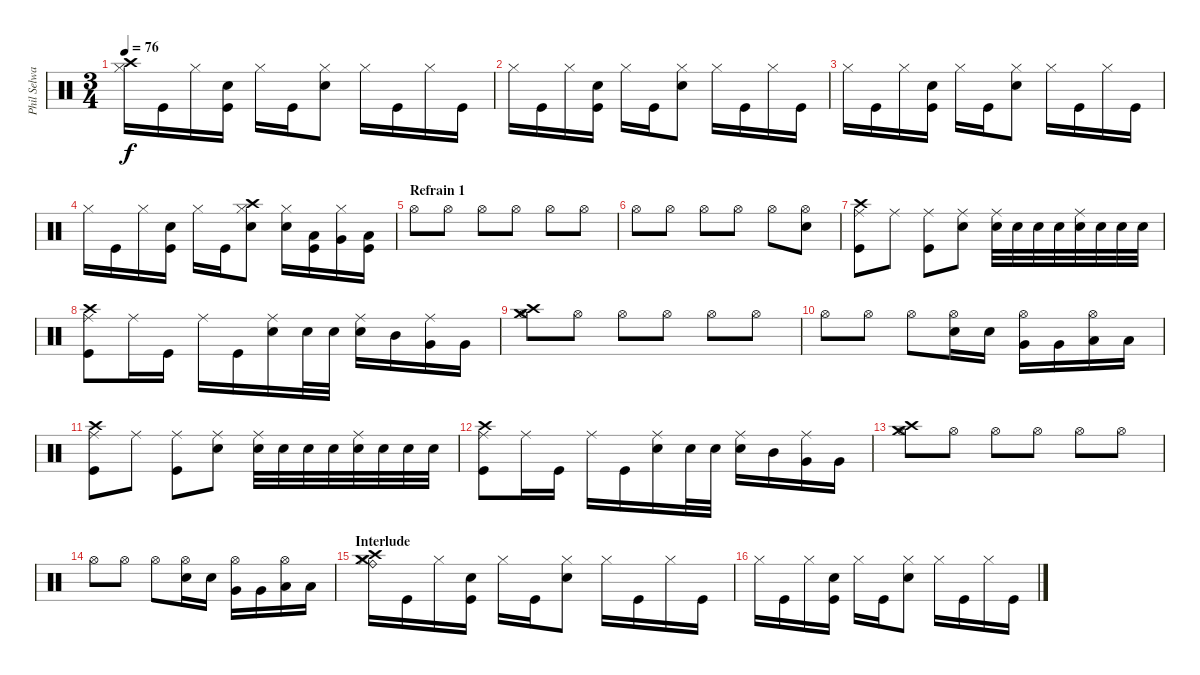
\track ("Phil Selway" "Phil Selwa") {instrument percussion}
\staff {score}
\articulation defaults
\ts (3 4)
\tempo 76
\clef neutral
\ks c
("Hi-Hat (closed)" "Crash high (hit)").16{dy f} "Kick (hit)".16 "Hi-Hat (closed)".16 ("Kick (hit)" "Snare (hit) 2").16 "Hi-Hat (closed)".16 "Kick (hit)".16 ("Snare (hit) 2" "Hi-Hat (closed)").8 "Hi-Hat (closed)".16 "Kick (hit)".16 "Hi-Hat (closed)".16 "Kick (hit)".16 |
"Hi-Hat (closed)".16 "Kick (hit)".16 "Hi-Hat (closed)".16 ("Kick (hit)" "Snare (hit) 2").16 "Hi-Hat (closed)".16 "Kick (hit)".16 ("Snare (hit) 2" "Hi-Hat (closed)").8 "Hi-Hat (closed)".16 "Kick (hit)".16 "Hi-Hat (closed)".16 "Kick (hit)".16 |
"Hi-Hat (closed)".16 "Kick (hit)".16 "Hi-Hat (closed)".16 ("Kick (hit)" "Snare (hit) 2").16 "Hi-Hat (closed)".16 "Kick (hit)".16 ("Snare (hit) 2" "Hi-Hat (closed)").8 "Hi-Hat (closed)".16 "Kick (hit)".16 "Hi-Hat (closed)".16 "Kick (hit)".16 |
"Hi-Hat (closed)".16 "Kick (hit)".16 "Hi-Hat (closed)".16 ("Kick (hit)" "Snare (hit) 2").16 "Hi-Hat (closed)".16 "Kick (hit)".16 ("Snare (hit) 2" "Hi-Hat (closed)" "Crash high (hit)").8 ("Snare (hit) 2" "Hi-Hat (closed)").16 ("Kick (hit)" "Low Tom (hit)").16 ("Hi-Hat (closed)" "Very Low Tom (hit)").16 ("Kick (hit)" "Low Floor Tom (hit)").16 |
\section ("" "Refrain 1")
"Hi-Hat (open)".8 "Hi-Hat (open)".8 "Hi-Hat (open)".8 "Hi-Hat (open)".8 "Hi-Hat (open)".8 "Hi-Hat (open)".8 |
"Hi-Hat (open)".8 "Hi-Hat (open)".8 "Hi-Hat (open)".8 "Hi-Hat (open)".8 "Hi-Hat (open)".8 ("Snare (hit) 2" "Hi-Hat (open)").8 |
("Kick (hit)" "Crash high (hit)" "Ride (middle)").8 "Ride (middle)".8 ("Kick (hit)" "Ride (middle)").8 ("Snare (hit) 2" "Ride (middle)").8 ("Snare (hit) 2" "Ride (middle)").32 "Snare (hit) 2".32 "Snare (hit) 2".32 "Snare (hit) 2".32 ("Snare (hit) 2" "Ride (middle)").32 "Snare (hit) 2".32 "Snare (hit) 2".32 "Snare (hit) 2".32 |
("Kick (hit)" "Crash high (hit)" "Ride (middle)").8 "Ride (middle)".16 "Kick (hit)".16 "Ride (middle)".16 "Kick (hit)".16 ("Snare (hit) 2" "Ride (middle)").16 "Snare (hit) 2".32 "Snare (hit) 2".32 ("Snare (hit) 2" "Ride (middle)").16 "Mid Tom (hit)".16 ("Very Low Tom (hit)" "Ride (middle)").16 "Very Low Tom (hit)".16 |
("Hi-Hat (open)" "Crash high (hit)" "Crash medium (hit)").8 "Hi-Hat (open)".8 "Hi-Hat (open)".8 "Hi-Hat (open)".8 "Hi-Hat (open)".8 "Hi-Hat (open)".8 |
"Hi-Hat (open)".8 "Hi-Hat (open)".8 "Hi-Hat (open)".8 ("Snare (hit) 2" "Hi-Hat (open)").16 "Snare (hit) 2".16 ("Very Low Tom (hit)" "Hi-Hat (open)").16 "Very Low Tom (hit)".16 ("Low Floor Tom (hit)" "Hi-Hat (open)").16 "Low Floor Tom (hit)".16 |
("Kick (hit)" "Crash high (hit)" "Ride (middle)").8 "Ride (middle)".8 ("Kick (hit)" "Ride (middle)").8 ("Snare (hit) 2" "Ride (middle)").8 ("Snare (hit) 2" "Ride (middle)").32 "Snare (hit) 2".32 "Snare (hit) 2".32 "Snare (hit) 2".32 ("Snare (hit) 2" "Ride (middle)").32 "Snare (hit) 2".32 "Snare (hit) 2".32 "Snare (hit) 2".32 |
("Kick (hit)" "Crash high (hit)" "Ride (middle)").8 "Ride (middle)".16 "Kick (hit)".16 "Ride (middle)".16 "Kick (hit)".16 ("Snare (hit) 2" "Ride (middle)").16 "Snare (hit) 2".32 "Snare (hit) 2".32 ("Snare (hit) 2" "Ride (middle)").16 "Mid Tom (hit)".16 ("Very Low Tom (hit)" "Ride (middle)").16 "Very Low Tom (hit)".16 |
("Hi-Hat (open)" "Crash high (hit)" "Crash medium (hit)").8 "Hi-Hat (open)".8 "Hi-Hat (open)".8 "Hi-Hat (open)".8 "Hi-Hat (open)".8 "Hi-Hat (open)".8 |
"Hi-Hat (open)".8 "Hi-Hat (open)".8 "Hi-Hat (open)".8 ("Snare (hit) 2" "Hi-Hat (open)").16 "Snare (hit) 2".16 ("Very Low Tom (hit)" "Hi-Hat (open)").16 "Very Low Tom (hit)".16 ("Low Floor Tom (hit)" "Hi-Hat (open)").16 "Low Floor Tom (hit)".16 |
\section ("" "Interlude")
("Hi-Hat (closed)" "Crash high (hit)" "Ride (bell)" "Crash medium (hit)").16 "Kick (hit)".16 "Hi-Hat (closed)".16 ("Kick (hit)" "Snare (hit) 2").16 "Hi-Hat (closed)".16 "Kick (hit)".16 ("Snare (hit) 2" "Hi-Hat (closed)").8 "Hi-Hat (closed)".16 "Kick (hit)".16 "Hi-Hat (closed)".16 "Kick (hit)".16 |
"Hi-Hat (closed)".16 "Kick (hit)".16 "Hi-Hat (closed)".16 ("Kick (hit)" "Snare (hit) 2").16 "Hi-Hat (closed)".16 "Kick (hit)".16 ("Snare (hit) 2" "Hi-Hat (closed)").8 "Hi-Hat (closed)".16 "Kick (hit)".16 "Hi-Hat (closed)".16 "Kick (hit)".16
